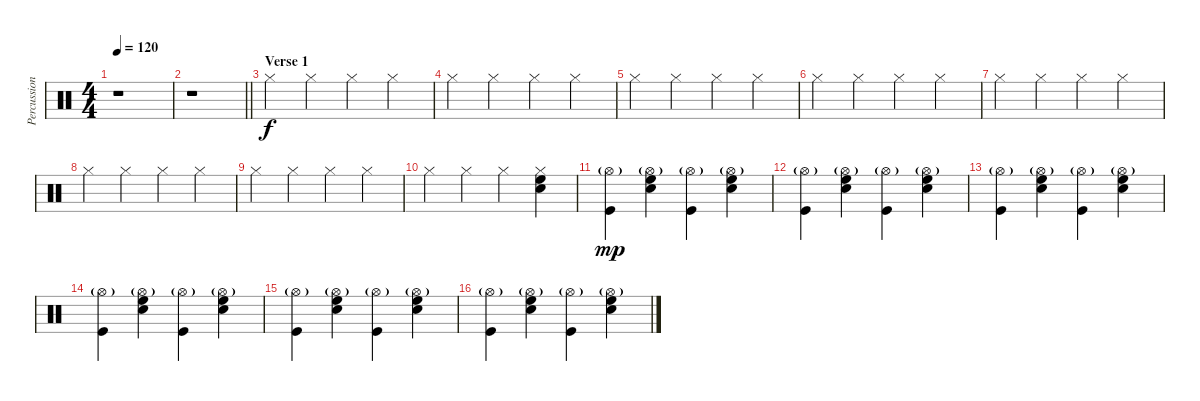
\track ("Percussion" "Percussion") {instrument percussion}
\staff {score}
\articulation defaults
\ts (4 4)
\tempo 120
\clef neutral
\ks c
r.1{dy f} |
\barLineRight lightlight
r.1 |
\section ("" "Verse 1")
"Hi-Hat (closed)".4 "Hi-Hat (closed)".4 "Hi-Hat (closed)".4 "Hi-Hat (closed)".4 |
"Hi-Hat (closed)".4 "Hi-Hat (closed)".4 "Hi-Hat (closed)".4 "Hi-Hat (closed)".4 |
"Hi-Hat (closed)".4 "Hi-Hat (closed)".4 "Hi-Hat (closed)".4 "Hi-Hat (closed)".4 |
"Hi-Hat (closed)".4 "Hi-Hat (closed)".4 "Hi-Hat (closed)".4 "Hi-Hat (closed)".4 |
"Hi-Hat (closed)".4 "Hi-Hat (closed)".4 "Hi-Hat (closed)".4 "Hi-Hat (closed)".4 |
"Hi-Hat (closed)".4 "Hi-Hat (closed)".4 "Hi-Hat (closed)".4 "Hi-Hat (closed)".4 |
"Hi-Hat (closed)".4 "Hi-Hat (closed)".4 "Hi-Hat (closed)".4 "Hi-Hat (closed)".4 |
"Hi-Hat (closed)".4 "Hi-Hat (closed)".4 "Hi-Hat (closed)".4 ("Hi-Hat (closed)" "High Floor Tom (hit)" "Electric Snare (hit)").4 |
("Hi-Hat (open)"{g} "Kick (hit)").4{dy mp} ("Hi-Hat (open)"{g} "High Floor Tom (hit)" "Electric Snare (hit)").4 ("Hi-Hat (open)"{g} "Kick (hit)").4 ("Hi-Hat (open)"{g} "High Floor Tom (hit)" "Electric Snare (hit)").4 |
("Hi-Hat (open)"{g} "Kick (hit)").4 ("Hi-Hat (open)"{g} "High Floor Tom (hit)" "Electric Snare (hit)").4 ("Hi-Hat (open)"{g} "Kick (hit)").4 ("Hi-Hat (open)"{g} "High Floor Tom (hit)" "Electric Snare (hit)").4 |
("Hi-Hat (open)"{g} "Kick (hit)").4 ("Hi-Hat (open)"{g} "High Floor Tom (hit)" "Electric Snare (hit)").4 ("Hi-Hat (open)"{g} "Kick (hit)").4 ("Hi-Hat (open)"{g} "High Floor Tom (hit)" "Electric Snare (hit)").4 |
("Hi-Hat (open)"{g} "Kick (hit)").4 ("Hi-Hat (open)"{g} "High Floor Tom (hit)" "Electric Snare (hit)").4 ("Hi-Hat (open)"{g} "Kick (hit)").4 ("Hi-Hat (open)"{g} "High Floor Tom (hit)" "Electric Snare (hit)").4 |
("Hi-Hat (open)"{g} "Kick (hit)").4 ("Hi-Hat (open)"{g} "High Floor Tom (hit)" "Electric Snare (hit)").4 ("Hi-Hat (open)"{g} "Kick (hit)").4 ("Hi-Hat (open)"{g} "High Floor Tom (hit)" "Electric Snare (hit)").4 |
("Hi-Hat (open)"{g} "Kick (hit)").4 ("Hi-Hat (open)"{g} "High Floor Tom (hit)" "Electric Snare (hit)").4 ("Hi-Hat (open)"{g} "Kick (hit)").4 ("Hi-Hat (open)"{g} "High Floor Tom (hit)" "Electric Snare (hit)").4
